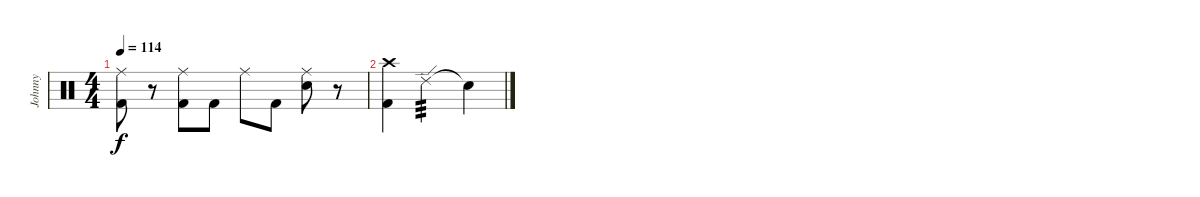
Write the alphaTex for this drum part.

\track ("Johnny" "Johnny") {instrument percussion}
\staff {score}
\articulation defaults
\ts (4 4)
\tempo 114
\clef neutral
\ks c
("Ride (middle)" "Kick (hit) 2").8{dy f} r.8 ("Ride (middle)" "Kick (hit) 2").8 "Kick (hit) 2".8 "Ride (middle)".8 "Kick (hit) 2".8 ("Ride (middle)" "Electric Snare (hit)").8 r.8 |
("Crash high (hit)" "Kick (hit) 2").4{volume 6} "Ride (edge) 2".2{tp 3 volume 13} "Snare (hit)"{t}.4
